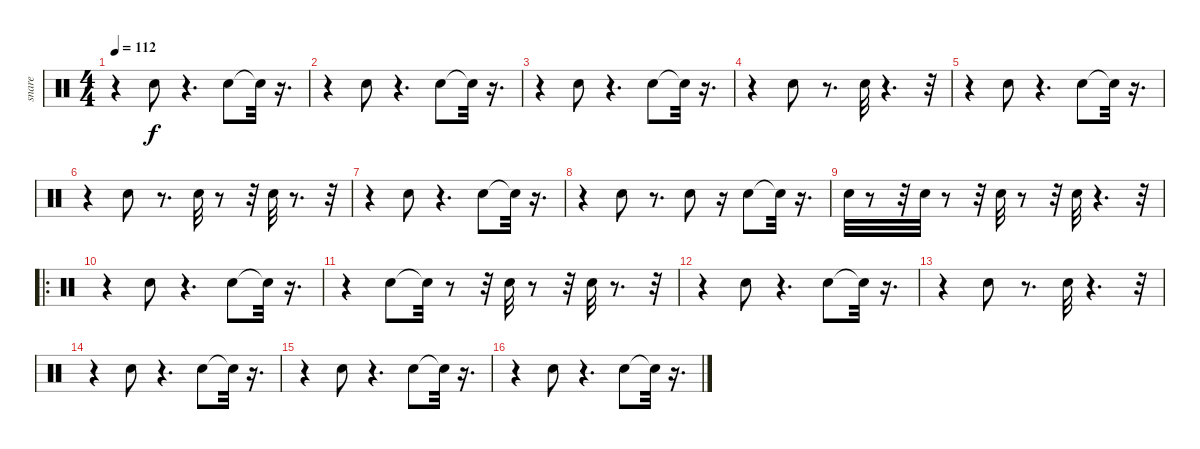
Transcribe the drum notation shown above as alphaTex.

\track ("snare" "snare") {instrument percussion}
\staff {score}
\articulation defaults
\ts (4 4)
\tempo 112
\clef neutral
\ks c
r.4{dy f} "Snare (hit) 2".8 r.4{d} "Snare (hit) 2".8 "Snare (hit)"{t}.32 r.16{d} |
r.4 "Snare (hit) 2".8 r.4{d} "Snare (hit) 2".8 "Snare (hit)"{t}.32 r.16{d} |
r.4 "Snare (hit) 2".8 r.4{d} "Snare (hit) 2".8 "Snare (hit)"{t}.32 r.16{d} |
r.4 "Snare (hit) 2".8 r.8{d} "Snare (hit) 2".32 r.4{d} r.32 |
r.4 "Snare (hit) 2".8 r.4{d} "Snare (hit) 2".8 "Snare (hit)"{t}.32 r.16{d} |
r.4 "Snare (hit) 2".8 r.8{d} "Snare (hit) 2".32 r.8 r.32 "Snare (hit) 2".32 r.8{d} r.32 |
r.4 "Snare (hit) 2".8 r.4{d} "Snare (hit) 2".8 "Snare (hit)"{t}.32 r.16{d} |
r.4 "Snare (hit) 2".8 r.8{d} "Snare (hit) 2".8 r.16 "Snare (hit) 2".8 "Snare (hit)"{t}.32 r.16{d} |
"Snare (hit) 2".32 r.8 r.32 "Snare (hit) 2".32 r.8 r.32 "Snare (hit) 2".32 r.8 r.32 "Snare (hit) 2".32 r.4{d} r.32 |
\ro
r.4 "Snare (hit) 2".8 r.4{d} "Snare (hit) 2".8 "Snare (hit)"{t}.32 r.16{d} |
r.4 "Snare (hit) 2".8 "Snare (hit)"{t}.32 r.8 r.32 "Snare (hit) 2".32 r.8 r.32 "Snare (hit) 2".32 r.8{d} r.32 |
r.4 "Snare (hit) 2".8 r.4{d} "Snare (hit) 2".8 "Snare (hit)"{t}.32 r.16{d} |
r.4 "Snare (hit) 2".8 r.8{d} "Snare (hit) 2".32 r.4{d} r.32 |
r.4 "Snare (hit) 2".8 r.4{d} "Snare (hit) 2".8 "Snare (hit)"{t}.32 r.16{d} |
r.4 "Snare (hit) 2".8 r.4{d} "Snare (hit) 2".8 "Snare (hit)"{t}.32 r.16{d} |
r.4 "Snare (hit) 2".8 r.4{d} "Snare (hit) 2".8 "Snare (hit)"{t}.32 r.16{d}
